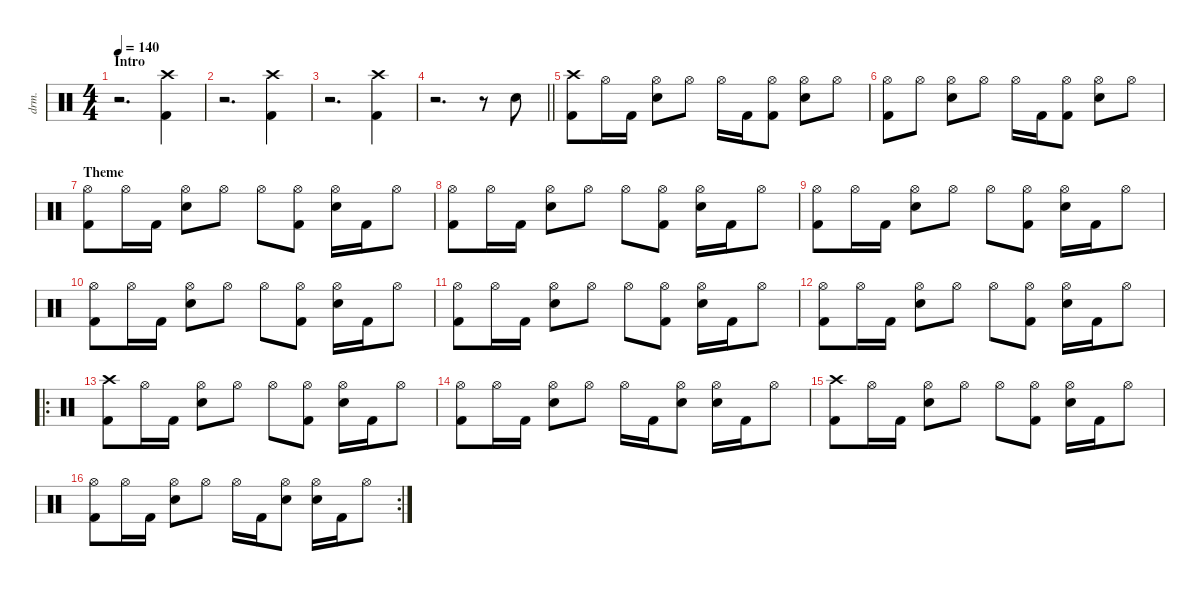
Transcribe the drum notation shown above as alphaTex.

\defaultSystemsLayout 4
\hideDynamics
\bracketExtendMode nobrackets
\otherSystemsTrackNameOrientation horizontal
\track ("Drums" "drm.") {defaultSystemsLayout 4 instrument percussion}
\staff {score}
\articulation defaults
\ts (4 4)
\section ("" "Intro")
\tempo 140
\clef neutral
\ks c
r.2{d dy f beam Down} ("Crash high (hit)" "Kick (hit) 2").4{beam Down} |
r.2{d beam Down} ("Crash high (hit)" "Kick (hit) 2").4{beam Down} |
r.2{d beam Down} ("Crash high (hit)" "Kick (hit) 2").4{beam Down} |
\barLineRight lightlight
r.2{d beam Down} r.8{beam Down} "Snare (hit) 2".8{beam Down} |
("Crash high (hit)" "Kick (hit) 2").8{beam Down} "Hi-Hat (open)".16{dy mf beam Down} "Kick (hit) 2".16{dy f beam Down} ("Hi-Hat (open)" "Snare (hit) 2").8{dy mf beam Down} "Hi-Hat (open)".8{beam Down} "Hi-Hat (open)".16{beam Down} "Kick (hit) 2".16{dy f beam Down} ("Hi-Hat (open)" "Kick (hit) 2").8{dy mf beam Down} ("Hi-Hat (open)" "Snare (hit) 2").8{beam Down} "Hi-Hat (open)".8{beam Down} |
("Hi-Hat (open)" "Kick (hit) 2").8{beam Down} "Hi-Hat (open)".8{beam Down} ("Hi-Hat (open)" "Snare (hit) 2").8{beam Down} "Hi-Hat (open)".8{beam Down} "Hi-Hat (open)".16{beam Down} "Kick (hit) 2".16{dy f beam Down} ("Hi-Hat (open)" "Kick (hit) 2").8{dy mf beam Down} ("Hi-Hat (open)" "Snare (hit) 2").8{beam Down} "Hi-Hat (open)".8{beam Down} |
\section ("" "Theme")
("Hi-Hat (open)" "Kick (hit) 2").8{beam Down} "Hi-Hat (open)".16{beam Down} "Kick (hit) 2".16{dy f beam Down} ("Hi-Hat (open)" "Snare (hit) 2").8{dy mf beam Down} "Hi-Hat (open)".8{beam Down} "Hi-Hat (open)".8{beam Down} ("Hi-Hat (open)" "Kick (hit) 2").8{beam Down} ("Hi-Hat (open)" "Snare (hit) 2").16{beam Down} "Kick (hit) 2".16{dy f beam Down} "Hi-Hat (open)".8{dy mf beam Down} |
("Hi-Hat (open)" "Kick (hit) 2").8{beam Down} "Hi-Hat (open)".16{beam Down} "Kick (hit) 2".16{dy f beam Down} ("Hi-Hat (open)" "Snare (hit) 2").8{dy mf beam Down} "Hi-Hat (open)".8{beam Down} "Hi-Hat (open)".8{beam Down} ("Hi-Hat (open)" "Kick (hit) 2").8{beam Down} ("Hi-Hat (open)" "Snare (hit) 2").16{beam Down} "Kick (hit) 2".16{dy f beam Down} "Hi-Hat (open)".8{dy mf beam Down} |
("Hi-Hat (open)" "Kick (hit) 2").8{beam Down} "Hi-Hat (open)".16{beam Down} "Kick (hit) 2".16{dy f beam Down} ("Hi-Hat (open)" "Snare (hit) 2").8{dy mf beam Down} "Hi-Hat (open)".8{beam Down} "Hi-Hat (open)".8{beam Down} ("Hi-Hat (open)" "Kick (hit) 2").8{beam Down} ("Hi-Hat (open)" "Snare (hit) 2").16{beam Down} "Kick (hit) 2".16{dy f beam Down} "Hi-Hat (open)".8{dy mf beam Down} |
("Hi-Hat (open)" "Kick (hit) 2").8{beam Down} "Hi-Hat (open)".16{beam Down} "Kick (hit) 2".16{dy f beam Down} ("Hi-Hat (open)" "Snare (hit) 2").8{dy mf beam Down} "Hi-Hat (open)".8{beam Down} "Hi-Hat (open)".8{beam Down} ("Hi-Hat (open)" "Kick (hit) 2").8{beam Down} ("Hi-Hat (open)" "Snare (hit) 2").16{beam Down} "Kick (hit) 2".16{dy f beam Down} "Hi-Hat (open)".8{dy mf beam Down} |
("Hi-Hat (open)" "Kick (hit) 2").8{beam Down} "Hi-Hat (open)".16{beam Down} "Kick (hit) 2".16{dy f beam Down} ("Hi-Hat (open)" "Snare (hit) 2").8{dy mf beam Down} "Hi-Hat (open)".8{beam Down} "Hi-Hat (open)".8{beam Down} ("Hi-Hat (open)" "Kick (hit) 2").8{beam Down} ("Hi-Hat (open)" "Snare (hit) 2").16{beam Down} "Kick (hit) 2".16{dy f beam Down} "Hi-Hat (open)".8{dy mf beam Down} |
("Hi-Hat (open)" "Kick (hit) 2").8{beam Down} "Hi-Hat (open)".16{beam Down} "Kick (hit) 2".16{dy f beam Down} ("Hi-Hat (open)" "Snare (hit) 2").8{dy mf beam Down} "Hi-Hat (open)".8{beam Down} "Hi-Hat (open)".8{beam Down} ("Hi-Hat (open)" "Kick (hit) 2").8{beam Down} ("Hi-Hat (open)" "Snare (hit) 2").16{beam Down} "Kick (hit) 2".16{dy f beam Down} "Hi-Hat (open)".8{dy mf beam Down} |
\ro
("Crash high (hit)" "Kick (hit) 2").8{dy f beam Down} "Hi-Hat (open)".16{dy mf beam Down} "Kick (hit) 2".16{dy f beam Down} ("Hi-Hat (open)" "Snare (hit) 2").8{dy mf beam Down} "Hi-Hat (open)".8{beam Down} "Hi-Hat (open)".8{beam Down} ("Hi-Hat (open)" "Kick (hit) 2").8{beam Down} ("Hi-Hat (open)" "Snare (hit) 2").16{beam Down} "Kick (hit) 2".16{dy f beam Down} "Hi-Hat (open)".8{dy mf beam Down} |
("Hi-Hat (open)" "Kick (hit) 2").8{beam Down} "Hi-Hat (open)".16{beam Down} "Kick (hit) 2".16{dy f beam Down} ("Hi-Hat (open)" "Snare (hit) 2").8{dy mf beam Down} "Hi-Hat (open)".8{beam Down} "Hi-Hat (open)".16{beam Down} "Kick (hit) 2".16{dy f beam Down} ("Hi-Hat (open)" "Snare (hit) 2").8{dy mf beam Down} ("Hi-Hat (open)" "Snare (hit) 2").16{beam Down} "Kick (hit) 2".16{dy f beam Down} "Hi-Hat (open)".8{dy mf beam Down} |
("Crash high (hit)" "Kick (hit) 2").8{dy f beam Down} "Hi-Hat (open)".16{dy mf beam Down} "Kick (hit) 2".16{dy f beam Down} ("Hi-Hat (open)" "Snare (hit) 2").8{dy mf beam Down} "Hi-Hat (open)".8{beam Down} "Hi-Hat (open)".8{beam Down} ("Hi-Hat (open)" "Kick (hit) 2").8{beam Down} ("Hi-Hat (open)" "Snare (hit) 2").16{beam Down} "Kick (hit) 2".16{dy f beam Down} "Hi-Hat (open)".8{dy mf beam Down} |
\rc 2
("Hi-Hat (open)" "Kick (hit) 2").8{beam Down} "Hi-Hat (open)".16{beam Down} "Kick (hit) 2".16{dy f beam Down} ("Hi-Hat (open)" "Snare (hit) 2").8{dy mf beam Down} "Hi-Hat (open)".8{beam Down} "Hi-Hat (open)".16{beam Down} "Kick (hit) 2".16{dy f beam Down} ("Hi-Hat (open)" "Snare (hit) 2").8{dy mf beam Down} ("Hi-Hat (open)" "Snare (hit) 2").16{beam Down} "Kick (hit) 2".16{dy f beam Down} "Hi-Hat (open)".8{dy mf beam Down}
